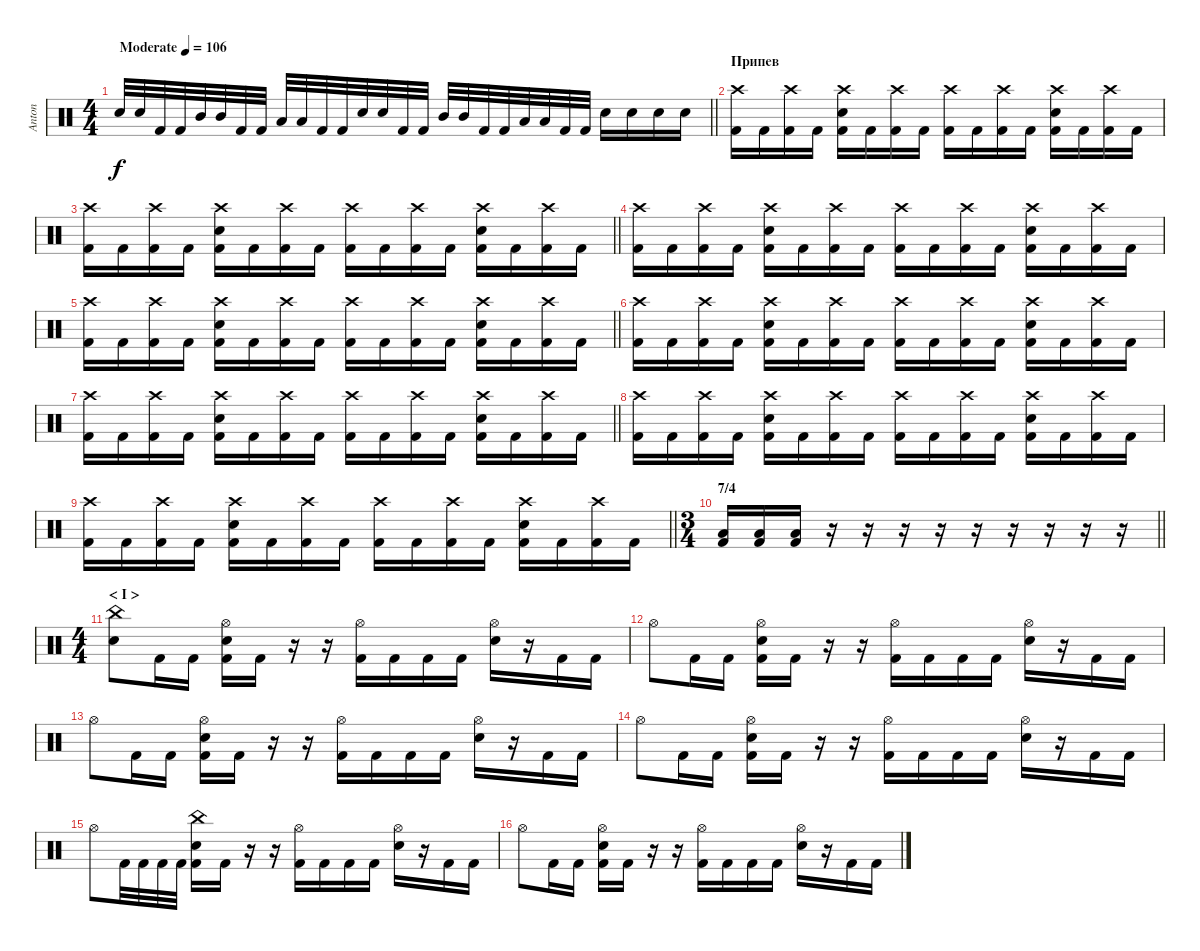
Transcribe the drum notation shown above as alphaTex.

\track ("Anton" "Anton") {instrument percussion}
\staff
\articulation defaults
\ts (4 4)
\tempo (106 "Moderate")
\clef neutral
\barLineRight lightlight
\ks c "Electric Snare (hit)".32{dy f} "Electric Snare (hit)".32 "Kick (hit) 2".32 "Kick (hit) 2".32 "Mid Tom (hit)".32 "Mid Tom (hit)".32 "Kick (hit) 2".32 "Kick (hit) 2".32 "Low Tom (hit)".32 "Low Tom (hit)".32 "Kick (hit) 2".32 "Kick (hit) 2".32 "Electric Snare (hit)".32 "Electric Snare (hit)".32 "Kick (hit) 2".32 "Kick (hit) 2".32 "Mid Tom (hit)".32 "Mid Tom (hit)".32 "Kick (hit) 2".32 "Kick (hit) 2".32 "Low Tom (hit)".32 "Low Tom (hit)".32 "Kick (hit) 2".32 "Kick (hit) 2".32 "Electric Snare (hit)".16 "Electric Snare (hit)".16 "Electric Snare (hit)".16 "Electric Snare (hit)".16
|
\section ("" "Припев")
("Crash high (hit)" "Kick (hit) 2").16 "Kick (hit) 2".16 ("Crash high (hit)" "Kick (hit) 2").16 "Kick (hit) 2".16 ("Crash high (hit)" "Electric Snare (hit)" "Kick (hit) 2").16 "Kick (hit) 2".16 ("Crash high (hit)" "Kick (hit) 2").16 "Kick (hit) 2".16 ("Crash high (hit)" "Kick (hit) 2").16 "Kick (hit) 2".16 ("Crash high (hit)" "Kick (hit) 2").16 "Kick (hit) 2".16 ("Crash high (hit)" "Electric Snare (hit)" "Kick (hit) 2").16 "Kick (hit) 2".16 ("Crash high (hit)" "Kick (hit) 2").16 "Kick (hit) 2".16 |
\barLineRight lightlight
("Crash high (hit)" "Kick (hit) 2").16 "Kick (hit) 2".16 ("Crash high (hit)" "Kick (hit) 2").16 "Kick (hit) 2".16 ("Crash high (hit)" "Electric Snare (hit)" "Kick (hit) 2").16 "Kick (hit) 2".16 ("Crash high (hit)" "Kick (hit) 2").16 "Kick (hit) 2".16 ("Crash high (hit)" "Kick (hit) 2").16 "Kick (hit) 2".16 ("Crash high (hit)" "Kick (hit) 2").16 "Kick (hit) 2".16 ("Crash high (hit)" "Electric Snare (hit)" "Kick (hit) 2").16 "Kick (hit) 2".16 ("Crash high (hit)" "Kick (hit) 2").16 "Kick (hit) 2".16 |
("Crash high (hit)" "Kick (hit) 2").16 "Kick (hit) 2".16 ("Crash high (hit)" "Kick (hit) 2").16 "Kick (hit) 2".16 ("Crash high (hit)" "Electric Snare (hit)" "Kick (hit) 2").16 "Kick (hit) 2".16 ("Crash high (hit)" "Kick (hit) 2").16 "Kick (hit) 2".16 ("Crash high (hit)" "Kick (hit) 2").16 "Kick (hit) 2".16 ("Crash high (hit)" "Kick (hit) 2").16 "Kick (hit) 2".16 ("Crash high (hit)" "Electric Snare (hit)" "Kick (hit) 2").16 "Kick (hit) 2".16 ("Crash high (hit)" "Kick (hit) 2").16 "Kick (hit) 2".16 |
\barLineRight lightlight
("Crash high (hit)" "Kick (hit) 2").16 "Kick (hit) 2".16 ("Crash high (hit)" "Kick (hit) 2").16 "Kick (hit) 2".16 ("Crash high (hit)" "Electric Snare (hit)" "Kick (hit) 2").16 "Kick (hit) 2".16 ("Crash high (hit)" "Kick (hit) 2").16 "Kick (hit) 2".16 ("Crash high (hit)" "Kick (hit) 2").16 "Kick (hit) 2".16 ("Crash high (hit)" "Kick (hit) 2").16 "Kick (hit) 2".16 ("Crash high (hit)" "Electric Snare (hit)" "Kick (hit) 2").16 "Kick (hit) 2".16 ("Crash high (hit)" "Kick (hit) 2").16 "Kick (hit) 2".16 |
("Crash high (hit)" "Kick (hit) 2").16 "Kick (hit) 2".16 ("Crash high (hit)" "Kick (hit) 2").16 "Kick (hit) 2".16 ("Crash high (hit)" "Electric Snare (hit)" "Kick (hit) 2").16 "Kick (hit) 2".16 ("Crash high (hit)" "Kick (hit) 2").16 "Kick (hit) 2".16 ("Crash high (hit)" "Kick (hit) 2").16 "Kick (hit) 2".16 ("Crash high (hit)" "Kick (hit) 2").16 "Kick (hit) 2".16 ("Crash high (hit)" "Electric Snare (hit)" "Kick (hit) 2").16 "Kick (hit) 2".16 ("Crash high (hit)" "Kick (hit) 2").16 "Kick (hit) 2".16 |
\barLineRight lightlight
("Crash high (hit)" "Kick (hit) 2").16 "Kick (hit) 2".16 ("Crash high (hit)" "Kick (hit) 2").16 "Kick (hit) 2".16 ("Crash high (hit)" "Electric Snare (hit)" "Kick (hit) 2").16 "Kick (hit) 2".16 ("Crash high (hit)" "Kick (hit) 2").16 "Kick (hit) 2".16 ("Crash high (hit)" "Kick (hit) 2").16 "Kick (hit) 2".16 ("Crash high (hit)" "Kick (hit) 2").16 "Kick (hit) 2".16 ("Crash high (hit)" "Electric Snare (hit)" "Kick (hit) 2").16 "Kick (hit) 2".16 ("Crash high (hit)" "Kick (hit) 2").16 "Kick (hit) 2".16 |
("Crash high (hit)" "Kick (hit) 2").16 "Kick (hit) 2".16 ("Crash high (hit)" "Kick (hit) 2").16 "Kick (hit) 2".16 ("Crash high (hit)" "Electric Snare (hit)" "Kick (hit) 2").16 "Kick (hit) 2".16 ("Crash high (hit)" "Kick (hit) 2").16 "Kick (hit) 2".16 ("Crash high (hit)" "Kick (hit) 2").16 "Kick (hit) 2".16 ("Crash high (hit)" "Kick (hit) 2").16 "Kick (hit) 2".16 ("Crash high (hit)" "Electric Snare (hit)" "Kick (hit) 2").16 "Kick (hit) 2".16 ("Crash high (hit)" "Kick (hit) 2").16 "Kick (hit) 2".16 |
\barLineRight lightlight
("Crash high (hit)" "Kick (hit) 2").16 "Kick (hit) 2".16 ("Crash high (hit)" "Kick (hit) 2").16 "Kick (hit) 2".16 ("Crash high (hit)" "Electric Snare (hit)" "Kick (hit) 2").16 "Kick (hit) 2".16 ("Crash high (hit)" "Kick (hit) 2").16 "Kick (hit) 2".16 ("Crash high (hit)" "Kick (hit) 2").16 "Kick (hit) 2".16 ("Crash high (hit)" "Kick (hit) 2").16 "Kick (hit) 2".16 ("Crash high (hit)" "Electric Snare (hit)" "Kick (hit) 2").16 "Kick (hit) 2".16 ("Crash high (hit)" "Kick (hit) 2").16 "Kick (hit) 2".16 |
\ts (3 4)
\section ("" "7/4")
\barLineRight lightlight
("Low Floor Tom (hit)" "Kick (hit) 2").16 ("Low Floor Tom (hit)" "Kick (hit) 2").16 ("Low Floor Tom (hit)" "Kick (hit) 2").16 r.16 r.16 r.16 r.16 r.16 r.16 r.16 r.16 r.16 |
\ts (4 4)
\section ("" "< I >")
("China (hit)" "Electric Snare (hit)").8 "Kick (hit) 2".16 "Kick (hit) 2".16 ("Hi-Hat (open)" "Electric Snare (hit)" "Kick (hit) 2").16 "Kick (hit) 2".16 r.16 r.16 ("Hi-Hat (open)" "Kick (hit) 2").16 "Kick (hit) 2".16 "Kick (hit) 2".16 "Kick (hit) 2".16 ("Hi-Hat (open)" "Electric Snare (hit)").16 r.16 "Kick (hit) 2".16 "Kick (hit) 2".16 |
"Hi-Hat (open)".8 "Kick (hit) 2".16 "Kick (hit) 2".16 ("Hi-Hat (open)" "Electric Snare (hit)" "Kick (hit) 2").16 "Kick (hit) 2".16 r.16 r.16 ("Hi-Hat (open)" "Kick (hit) 2").16 "Kick (hit) 2".16 "Kick (hit) 2".16 "Kick (hit) 2".16 ("Hi-Hat (open)" "Electric Snare (hit)").16 r.16 "Kick (hit) 2".16 "Kick (hit) 2".16 |
"Hi-Hat (open)".8 "Kick (hit) 2".16 "Kick (hit) 2".16 ("Hi-Hat (open)" "Electric Snare (hit)" "Kick (hit) 2").16 "Kick (hit) 2".16 r.16 r.16 ("Hi-Hat (open)" "Kick (hit) 2").16 "Kick (hit) 2".16 "Kick (hit) 2".16 "Kick (hit) 2".16 ("Hi-Hat (open)" "Electric Snare (hit)").16 r.16 "Kick (hit) 2".16 "Kick (hit) 2".16 |
"Hi-Hat (open)".8 "Kick (hit) 2".16 "Kick (hit) 2".16 ("Hi-Hat (open)" "Electric Snare (hit)" "Kick (hit) 2").16 "Kick (hit) 2".16 r.16 r.16 ("Hi-Hat (open)" "Kick (hit) 2").16 "Kick (hit) 2".16 "Kick (hit) 2".16 "Kick (hit) 2".16 ("Hi-Hat (open)" "Electric Snare (hit)").16 r.16 "Kick (hit) 2".16 "Kick (hit) 2".16 |
"Hi-Hat (open)".8 "Kick (hit) 2".32 "Kick (hit) 2".32 "Kick (hit) 2".32 "Kick (hit) 2".32 ("China (hit)" "Electric Snare (hit)" "Kick (hit) 2").16 "Kick (hit) 2".16 r.16 r.16 ("Hi-Hat (open)" "Kick (hit) 2").16 "Kick (hit) 2".16 "Kick (hit) 2".16 "Kick (hit) 2".16 ("Hi-Hat (open)" "Electric Snare (hit)").16 r.16 "Kick (hit) 2".16 "Kick (hit) 2".16 |
"Hi-Hat (open)".8 "Kick (hit) 2".16 "Kick (hit) 2".16 ("Hi-Hat (open)" "Electric Snare (hit)" "Kick (hit) 2").16 "Kick (hit) 2".16 r.16 r.16 ("Hi-Hat (open)" "Kick (hit) 2").16 "Kick (hit) 2".16 "Kick (hit) 2".16 "Kick (hit) 2".16 ("Hi-Hat (open)" "Electric Snare (hit)").16 r.16 "Kick (hit) 2".16 "Kick (hit) 2".16
